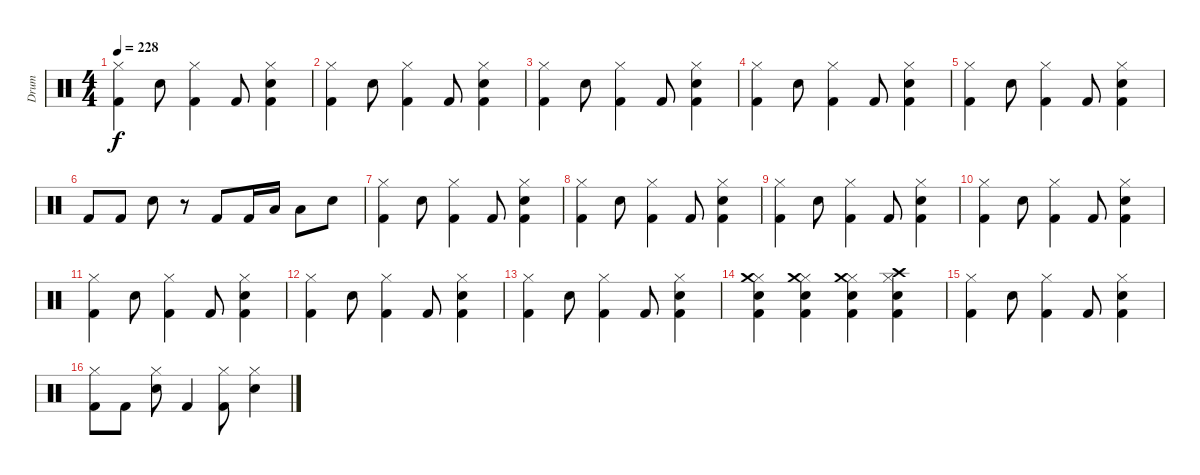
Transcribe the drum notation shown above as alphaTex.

\track ("Drum" "Drum") {instrument percussion}
\staff {score}
\articulation defaults
\ts (4 4)
\tempo 228
\clef neutral
\ks c
("Hi-Hat (closed)" "Kick (hit) 2").4{dy f} "Snare (hit) 2".8 ("Hi-Hat (closed)" "Kick (hit) 2").4 "Kick (hit) 2".8 ("Hi-Hat (closed)" "Snare (hit) 2" "Kick (hit) 2").4 |
("Hi-Hat (closed)" "Kick (hit) 2").4 "Snare (hit) 2".8 ("Hi-Hat (closed)" "Kick (hit) 2").4 "Kick (hit) 2".8 ("Hi-Hat (closed)" "Snare (hit) 2" "Kick (hit) 2").4 |
("Hi-Hat (closed)" "Kick (hit) 2").4 "Snare (hit) 2".8 ("Hi-Hat (closed)" "Kick (hit) 2").4 "Kick (hit) 2".8 ("Hi-Hat (closed)" "Snare (hit) 2" "Kick (hit) 2").4 |
("Hi-Hat (closed)" "Kick (hit) 2").4 "Snare (hit) 2".8 ("Hi-Hat (closed)" "Kick (hit) 2").4 "Kick (hit) 2".8 ("Hi-Hat (closed)" "Snare (hit) 2" "Kick (hit) 2").4 |
("Hi-Hat (closed)" "Kick (hit) 2").4 "Snare (hit) 2".8 ("Hi-Hat (closed)" "Kick (hit) 2").4 "Kick (hit) 2".8 ("Hi-Hat (closed)" "Snare (hit) 2" "Kick (hit) 2").4 |
"Kick (hit) 2".8 "Kick (hit) 2".8 "Snare (hit) 2".8 r.8 "Kick (hit) 2".8 "Kick (hit) 2".16 "Low Tom (hit)".16 "Low Tom (hit)".8 "Snare (hit) 2".8 |
("Hi-Hat (closed)" "Kick (hit) 2").4 "Snare (hit) 2".8 ("Hi-Hat (closed)" "Kick (hit) 2").4 "Kick (hit) 2".8 ("Hi-Hat (closed)" "Snare (hit) 2" "Kick (hit) 2").4 |
("Hi-Hat (closed)" "Kick (hit) 2").4 "Snare (hit) 2".8 ("Hi-Hat (closed)" "Kick (hit) 2").4 "Kick (hit) 2".8 ("Hi-Hat (closed)" "Snare (hit) 2" "Kick (hit) 2").4 |
("Hi-Hat (closed)" "Kick (hit) 2").4 "Snare (hit) 2".8 ("Hi-Hat (closed)" "Kick (hit) 2").4 "Kick (hit) 2".8 ("Hi-Hat (closed)" "Snare (hit) 2" "Kick (hit) 2").4 |
("Hi-Hat (closed)" "Kick (hit) 2").4 "Snare (hit) 2".8 ("Hi-Hat (closed)" "Kick (hit) 2").4 "Kick (hit) 2".8 ("Hi-Hat (closed)" "Snare (hit) 2" "Kick (hit) 2").4 |
("Hi-Hat (closed)" "Kick (hit) 2").4 "Snare (hit) 2".8 ("Hi-Hat (closed)" "Kick (hit) 2").4 "Kick (hit) 2".8 ("Hi-Hat (closed)" "Snare (hit) 2" "Kick (hit) 2").4 |
("Hi-Hat (closed)" "Kick (hit) 2").4 "Snare (hit) 2".8 ("Hi-Hat (closed)" "Kick (hit) 2").4 "Kick (hit) 2".8 ("Hi-Hat (closed)" "Snare (hit) 2" "Kick (hit) 2").4 |
("Hi-Hat (closed)" "Kick (hit) 2").4 "Snare (hit) 2".8 ("Hi-Hat (closed)" "Kick (hit) 2").4 "Kick (hit) 2".8 ("Hi-Hat (closed)" "Snare (hit) 2" "Kick (hit) 2").4 |
("Hi-Hat (closed)" "Crash medium (hit)" "Snare (hit) 2" "Kick (hit) 2").4 ("Hi-Hat (closed)" "Crash medium (hit)" "Snare (hit) 2" "Kick (hit) 2").4 ("Hi-Hat (closed)" "Crash medium (hit)" "Snare (hit) 2" "Kick (hit) 2").4 ("Hi-Hat (closed)" "Crash high (hit)" "Snare (hit) 2" "Kick (hit) 2").4 |
("Hi-Hat (closed)" "Kick (hit) 2").4 "Snare (hit) 2".8 ("Hi-Hat (closed)" "Kick (hit) 2").4 "Kick (hit) 2".8 ("Hi-Hat (closed)" "Snare (hit) 2" "Kick (hit) 2").4 |
("Hi-Hat (closed)" "Kick (hit) 2").8 "Kick (hit) 2".8 ("Hi-Hat (closed)" "Snare (hit) 2").8 "Kick (hit) 2".4 ("Hi-Hat (closed)" "Kick (hit) 2").8 ("Hi-Hat (closed)" "Snare (hit) 2").4
